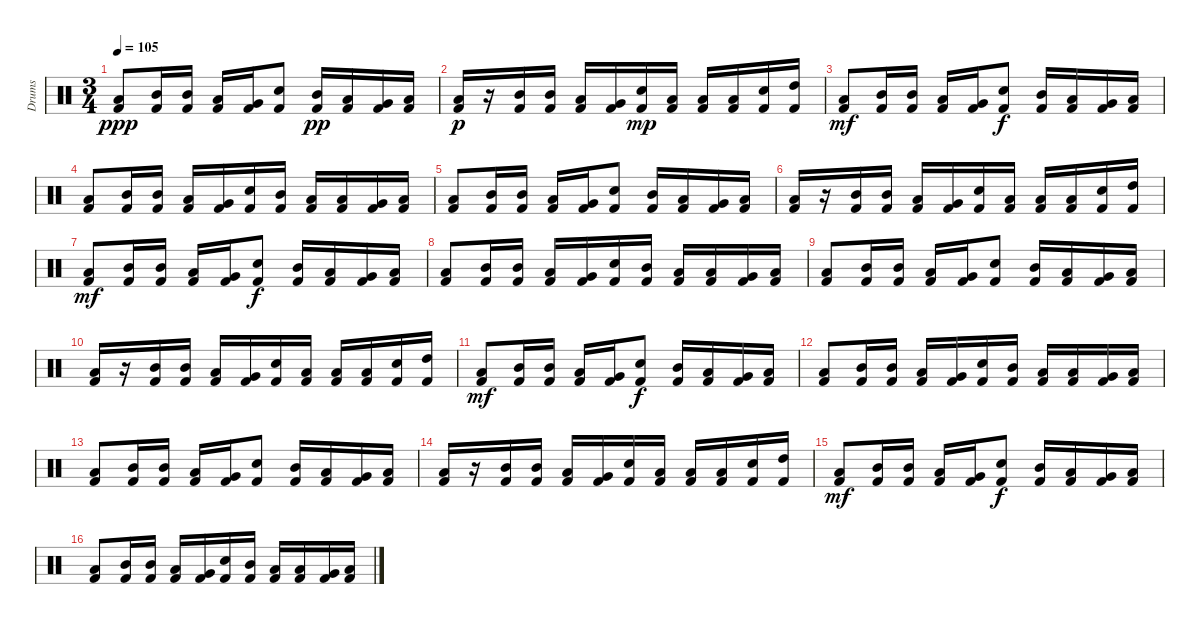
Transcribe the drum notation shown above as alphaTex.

\track ("Drums" "Drums") {instrument percussion}
\staff {score}
\articulation defaults
\ts (3 4)
\tempo 105
\clef neutral
\ks c
("Low Tom (hit)" "Kick (hit) 2").8{dy ppp} ("Mid Tom (hit)" "Kick (hit) 2").16 ("Mid Tom (hit)" "Kick (hit) 2").16 ("Low Tom (hit)" "Kick (hit) 2").16 ("Very Low Tom (hit)" "Kick (hit) 2").16 ("Electric Snare (hit)" "Kick (hit) 2").8 ("Mid Tom (hit)" "Kick (hit) 2").16{dy pp} ("Low Tom (hit)" "Kick (hit) 2").16 ("Very Low Tom (hit)" "Kick (hit) 2").16 ("Low Floor Tom (hit)" "Kick (hit) 2").16 |
("Low Tom (hit)" "Kick (hit) 2").16{dy p} r.16 ("Mid Tom (hit)" "Kick (hit) 2").16 ("Mid Tom (hit)" "Kick (hit) 2").16 ("Low Tom (hit)" "Kick (hit) 2").16 ("Very Low Tom (hit)" "Kick (hit) 2").16 ("Electric Snare (hit)" "Kick (hit) 2").16{dy mp} ("Low Tom (hit)" "Kick (hit) 2").16 ("Low Tom (hit)" "Kick (hit) 2").16 ("Low Tom (hit)" "Kick (hit) 2").16 ("Electric Snare (hit)" "Kick (hit) 2").16 ("High Tom (hit)" "Kick (hit) 2").16 |
("Low Tom (hit)" "Kick (hit) 2").8{dy mf} ("Mid Tom (hit)" "Kick (hit) 2").16 ("Mid Tom (hit)" "Kick (hit) 2").16 ("Low Tom (hit)" "Kick (hit) 2").16 ("Very Low Tom (hit)" "Kick (hit) 2").16 ("Electric Snare (hit)" "Kick (hit) 2").8{dy f} ("Mid Tom (hit)" "Kick (hit) 2").16 ("Low Tom (hit)" "Kick (hit) 2").16 ("Very Low Tom (hit)" "Kick (hit) 2").16 ("Low Floor Tom (hit)" "Kick (hit) 2").16 |
("Low Tom (hit)" "Kick (hit) 2").8 ("Mid Tom (hit)" "Kick (hit) 2").16 ("Mid Tom (hit)" "Kick (hit) 2").16 ("Low Tom (hit)" "Kick (hit) 2").16 ("Very Low Tom (hit)" "Kick (hit) 2").16 ("Electric Snare (hit)" "Kick (hit) 2").16 ("Mid Tom (hit)" "Kick (hit) 2").16 ("Low Tom (hit)" "Kick (hit) 2").16 ("Low Tom (hit)" "Kick (hit) 2").16 ("Very Low Tom (hit)" "Kick (hit) 2").16 ("Low Floor Tom (hit)" "Kick (hit) 2").16 |
("Low Tom (hit)" "Kick (hit) 2").8 ("Mid Tom (hit)" "Kick (hit) 2").16 ("Mid Tom (hit)" "Kick (hit) 2").16 ("Low Tom (hit)" "Kick (hit) 2").16 ("Very Low Tom (hit)" "Kick (hit) 2").16 ("Electric Snare (hit)" "Kick (hit) 2").8 ("Mid Tom (hit)" "Kick (hit) 2").16 ("Low Tom (hit)" "Kick (hit) 2").16 ("Very Low Tom (hit)" "Kick (hit) 2").16 ("Low Floor Tom (hit)" "Kick (hit) 2").16 |
("Low Tom (hit)" "Kick (hit) 2").16 r.16 ("Mid Tom (hit)" "Kick (hit) 2").16 ("Mid Tom (hit)" "Kick (hit) 2").16 ("Low Tom (hit)" "Kick (hit) 2").16 ("Very Low Tom (hit)" "Kick (hit) 2").16 ("Electric Snare (hit)" "Kick (hit) 2").16 ("Low Tom (hit)" "Kick (hit) 2").16 ("Low Tom (hit)" "Kick (hit) 2").16 ("Low Tom (hit)" "Kick (hit) 2").16 ("Electric Snare (hit)" "Kick (hit) 2").16 ("High Tom (hit)" "Kick (hit) 2").16 |
("Low Tom (hit)" "Kick (hit) 2").8{dy mf} ("Mid Tom (hit)" "Kick (hit) 2").16 ("Mid Tom (hit)" "Kick (hit) 2").16 ("Low Tom (hit)" "Kick (hit) 2").16 ("Very Low Tom (hit)" "Kick (hit) 2").16 ("Electric Snare (hit)" "Kick (hit) 2").8{dy f} ("Mid Tom (hit)" "Kick (hit) 2").16 ("Low Tom (hit)" "Kick (hit) 2").16 ("Very Low Tom (hit)" "Kick (hit) 2").16 ("Low Floor Tom (hit)" "Kick (hit) 2").16 |
("Low Tom (hit)" "Kick (hit) 2").8 ("Mid Tom (hit)" "Kick (hit) 2").16 ("Mid Tom (hit)" "Kick (hit) 2").16 ("Low Tom (hit)" "Kick (hit) 2").16 ("Very Low Tom (hit)" "Kick (hit) 2").16 ("Electric Snare (hit)" "Kick (hit) 2").16 ("Mid Tom (hit)" "Kick (hit) 2").16 ("Low Tom (hit)" "Kick (hit) 2").16 ("Low Tom (hit)" "Kick (hit) 2").16 ("Very Low Tom (hit)" "Kick (hit) 2").16 ("Low Floor Tom (hit)" "Kick (hit) 2").16 |
("Low Tom (hit)" "Kick (hit) 2").8 ("Mid Tom (hit)" "Kick (hit) 2").16 ("Mid Tom (hit)" "Kick (hit) 2").16 ("Low Tom (hit)" "Kick (hit) 2").16 ("Very Low Tom (hit)" "Kick (hit) 2").16 ("Electric Snare (hit)" "Kick (hit) 2").8 ("Mid Tom (hit)" "Kick (hit) 2").16 ("Low Tom (hit)" "Kick (hit) 2").16 ("Very Low Tom (hit)" "Kick (hit) 2").16 ("Low Floor Tom (hit)" "Kick (hit) 2").16 |
("Low Tom (hit)" "Kick (hit) 2").16 r.16 ("Mid Tom (hit)" "Kick (hit) 2").16 ("Mid Tom (hit)" "Kick (hit) 2").16 ("Low Tom (hit)" "Kick (hit) 2").16 ("Very Low Tom (hit)" "Kick (hit) 2").16 ("Electric Snare (hit)" "Kick (hit) 2").16 ("Low Tom (hit)" "Kick (hit) 2").16 ("Low Tom (hit)" "Kick (hit) 2").16 ("Low Tom (hit)" "Kick (hit) 2").16 ("Electric Snare (hit)" "Kick (hit) 2").16 ("High Tom (hit)" "Kick (hit) 2").16 |
("Low Tom (hit)" "Kick (hit) 2").8{dy mf} ("Mid Tom (hit)" "Kick (hit) 2").16 ("Mid Tom (hit)" "Kick (hit) 2").16 ("Low Tom (hit)" "Kick (hit) 2").16 ("Very Low Tom (hit)" "Kick (hit) 2").16 ("Electric Snare (hit)" "Kick (hit) 2").8{dy f} ("Mid Tom (hit)" "Kick (hit) 2").16 ("Low Tom (hit)" "Kick (hit) 2").16 ("Very Low Tom (hit)" "Kick (hit) 2").16 ("Low Floor Tom (hit)" "Kick (hit) 2").16 |
("Low Tom (hit)" "Kick (hit) 2").8 ("Mid Tom (hit)" "Kick (hit) 2").16 ("Mid Tom (hit)" "Kick (hit) 2").16 ("Low Tom (hit)" "Kick (hit) 2").16 ("Very Low Tom (hit)" "Kick (hit) 2").16 ("Electric Snare (hit)" "Kick (hit) 2").16 ("Mid Tom (hit)" "Kick (hit) 2").16 ("Low Tom (hit)" "Kick (hit) 2").16 ("Low Tom (hit)" "Kick (hit) 2").16 ("Very Low Tom (hit)" "Kick (hit) 2").16 ("Low Floor Tom (hit)" "Kick (hit) 2").16 |
("Low Tom (hit)" "Kick (hit) 2").8 ("Mid Tom (hit)" "Kick (hit) 2").16 ("Mid Tom (hit)" "Kick (hit) 2").16 ("Low Tom (hit)" "Kick (hit) 2").16 ("Very Low Tom (hit)" "Kick (hit) 2").16 ("Electric Snare (hit)" "Kick (hit) 2").8 ("Mid Tom (hit)" "Kick (hit) 2").16 ("Low Tom (hit)" "Kick (hit) 2").16 ("Very Low Tom (hit)" "Kick (hit) 2").16 ("Low Floor Tom (hit)" "Kick (hit) 2").16 |
("Low Tom (hit)" "Kick (hit) 2").16 r.16 ("Mid Tom (hit)" "Kick (hit) 2").16 ("Mid Tom (hit)" "Kick (hit) 2").16 ("Low Tom (hit)" "Kick (hit) 2").16 ("Very Low Tom (hit)" "Kick (hit) 2").16 ("Electric Snare (hit)" "Kick (hit) 2").16 ("Low Tom (hit)" "Kick (hit) 2").16 ("Low Tom (hit)" "Kick (hit) 2").16 ("Low Tom (hit)" "Kick (hit) 2").16 ("Electric Snare (hit)" "Kick (hit) 2").16 ("High Tom (hit)" "Kick (hit) 2").16 |
("Low Tom (hit)" "Kick (hit) 2").8{dy mf} ("Mid Tom (hit)" "Kick (hit) 2").16 ("Mid Tom (hit)" "Kick (hit) 2").16 ("Low Tom (hit)" "Kick (hit) 2").16 ("Very Low Tom (hit)" "Kick (hit) 2").16 ("Electric Snare (hit)" "Kick (hit) 2").8{dy f} ("Mid Tom (hit)" "Kick (hit) 2").16 ("Low Tom (hit)" "Kick (hit) 2").16 ("Very Low Tom (hit)" "Kick (hit) 2").16 ("Low Floor Tom (hit)" "Kick (hit) 2").16 |
("Low Tom (hit)" "Kick (hit) 2").8 ("Mid Tom (hit)" "Kick (hit) 2").16 ("Mid Tom (hit)" "Kick (hit) 2").16 ("Low Tom (hit)" "Kick (hit) 2").16 ("Very Low Tom (hit)" "Kick (hit) 2").16 ("Electric Snare (hit)" "Kick (hit) 2").16 ("Mid Tom (hit)" "Kick (hit) 2").16 ("Low Tom (hit)" "Kick (hit) 2").16 ("Low Tom (hit)" "Kick (hit) 2").16 ("Very Low Tom (hit)" "Kick (hit) 2").16 ("Low Floor Tom (hit)" "Kick (hit) 2").16
